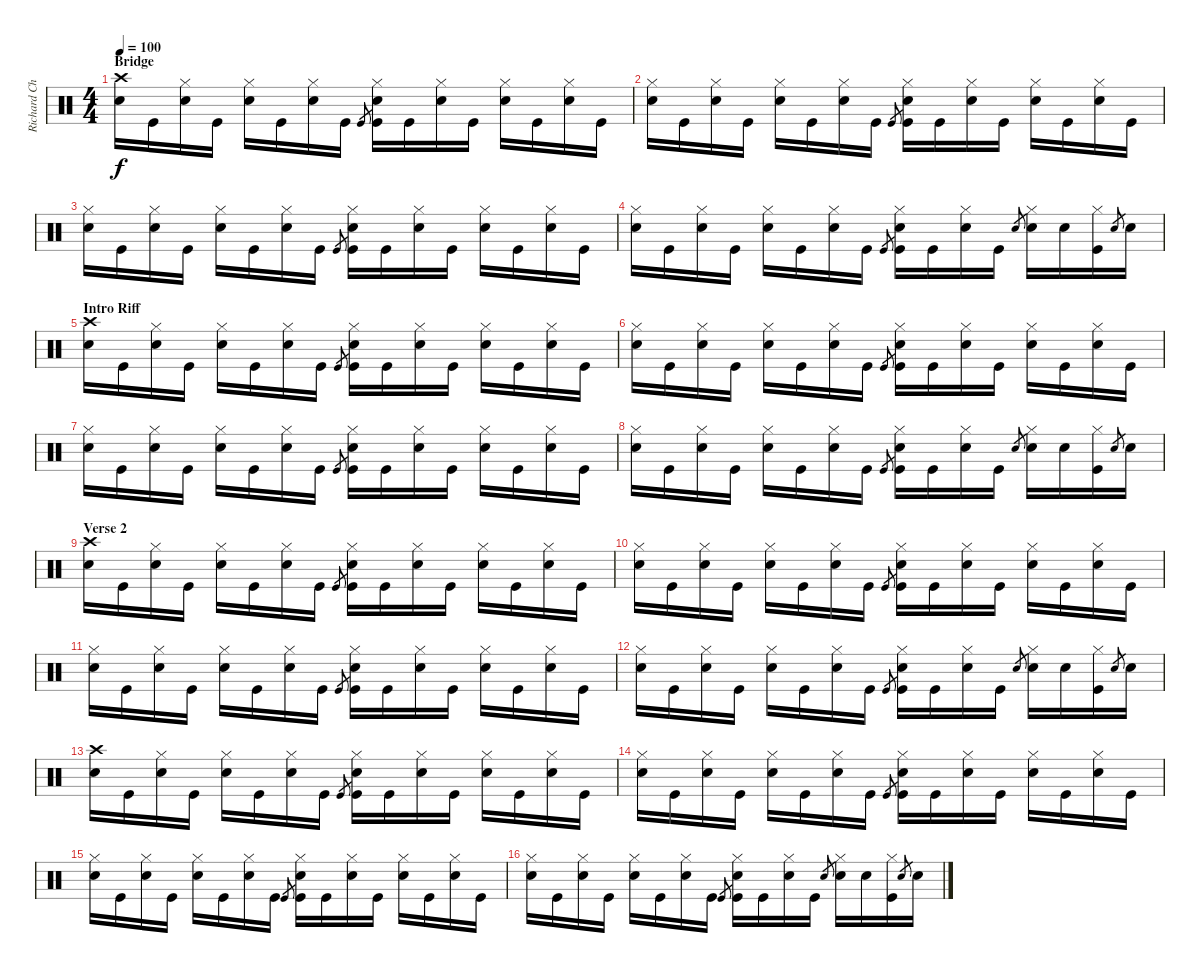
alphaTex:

\track ("Richard Chadwick - Drums" "Richard Ch") {instrument percussion}
\staff {score}
\articulation defaults
\ts (4 4)
\section ("" "Bridge")
\tempo 100
\clef neutral
\ks c
("Crash high (hit)" "Snare (hit) 2").16{dy f} "Kick (hit)".16 ("Hi-Hat (closed)" "Snare (hit) 2").16 "Kick (hit)".16 ("Hi-Hat (closed)" "Snare (hit) 2").16 "Kick (hit)".16 ("Hi-Hat (closed)" "Snare (hit) 2").16 "Kick (hit)".16 "Kick (hit)".8{gr} ("Hi-Hat (closed)" "Snare (hit) 2" "Kick (hit)").16 "Kick (hit)".16 ("Hi-Hat (closed)" "Snare (hit) 2").16 "Kick (hit)".16 ("Hi-Hat (closed)" "Snare (hit) 2").16 "Kick (hit)".16 ("Hi-Hat (closed)" "Snare (hit) 2").16 "Kick (hit)".16 |
("Hi-Hat (closed)" "Snare (hit) 2").16 "Kick (hit)".16 ("Hi-Hat (closed)" "Snare (hit) 2").16 "Kick (hit)".16 ("Hi-Hat (closed)" "Snare (hit) 2").16 "Kick (hit)".16 ("Hi-Hat (closed)" "Snare (hit) 2").16 "Kick (hit)".16 "Kick (hit)".8{gr} ("Hi-Hat (closed)" "Snare (hit) 2" "Kick (hit)").16 "Kick (hit)".16 ("Hi-Hat (closed)" "Snare (hit) 2").16 "Kick (hit)".16 ("Hi-Hat (closed)" "Snare (hit) 2").16 "Kick (hit)".16 ("Hi-Hat (closed)" "Snare (hit) 2").16 "Kick (hit)".16 |
("Hi-Hat (closed)" "Snare (hit) 2").16 "Kick (hit)".16 ("Hi-Hat (closed)" "Snare (hit) 2").16 "Kick (hit)".16 ("Hi-Hat (closed)" "Snare (hit) 2").16 "Kick (hit)".16 ("Hi-Hat (closed)" "Snare (hit) 2").16 "Kick (hit)".16 "Kick (hit)".8{gr} ("Hi-Hat (closed)" "Snare (hit) 2" "Kick (hit)").16 "Kick (hit)".16 ("Hi-Hat (closed)" "Snare (hit) 2").16 "Kick (hit)".16 ("Hi-Hat (closed)" "Snare (hit) 2").16 "Kick (hit)".16 ("Hi-Hat (closed)" "Snare (hit) 2").16 "Kick (hit)".16 |
("Hi-Hat (closed)" "Snare (hit) 2").16 "Kick (hit)".16 ("Hi-Hat (closed)" "Snare (hit) 2").16 "Kick (hit)".16 ("Hi-Hat (closed)" "Snare (hit) 2").16 "Kick (hit)".16 ("Hi-Hat (closed)" "Snare (hit) 2").16 "Kick (hit)".16 "Kick (hit)".8{gr} ("Hi-Hat (closed)" "Snare (hit) 2" "Kick (hit)").16 "Kick (hit)".16 ("Hi-Hat (closed)" "Snare (hit) 2").16 "Kick (hit)".16 "Snare (hit) 2".8{gr} ("Hi-Hat (closed)" "Snare (hit) 2").16 "Snare (hit) 2".16 ("Hi-Hat (closed)" "Kick (hit)").16 "Snare (hit) 2".8{gr} "Snare (hit) 2".16 |
\section ("" "Intro Riff")
("Crash high (hit)" "Snare (hit) 2").16 "Kick (hit)".16 ("Hi-Hat (closed)" "Snare (hit) 2").16 "Kick (hit)".16 ("Hi-Hat (closed)" "Snare (hit) 2").16 "Kick (hit)".16 ("Hi-Hat (closed)" "Snare (hit) 2").16 "Kick (hit)".16 "Kick (hit)".8{gr} ("Hi-Hat (closed)" "Snare (hit) 2" "Kick (hit)").16 "Kick (hit)".16 ("Hi-Hat (closed)" "Snare (hit) 2").16 "Kick (hit)".16 ("Hi-Hat (closed)" "Snare (hit) 2").16 "Kick (hit)".16 ("Hi-Hat (closed)" "Snare (hit) 2").16 "Kick (hit)".16 |
("Hi-Hat (closed)" "Snare (hit) 2").16 "Kick (hit)".16 ("Hi-Hat (closed)" "Snare (hit) 2").16 "Kick (hit)".16 ("Hi-Hat (closed)" "Snare (hit) 2").16 "Kick (hit)".16 ("Hi-Hat (closed)" "Snare (hit) 2").16 "Kick (hit)".16 "Kick (hit)".8{gr} ("Hi-Hat (closed)" "Snare (hit) 2" "Kick (hit)").16 "Kick (hit)".16 ("Hi-Hat (closed)" "Snare (hit) 2").16 "Kick (hit)".16 ("Hi-Hat (closed)" "Snare (hit) 2").16 "Kick (hit)".16 ("Hi-Hat (closed)" "Snare (hit) 2").16 "Kick (hit)".16 |
("Hi-Hat (closed)" "Snare (hit) 2").16 "Kick (hit)".16 ("Hi-Hat (closed)" "Snare (hit) 2").16 "Kick (hit)".16 ("Hi-Hat (closed)" "Snare (hit) 2").16 "Kick (hit)".16 ("Hi-Hat (closed)" "Snare (hit) 2").16 "Kick (hit)".16 "Kick (hit)".8{gr} ("Hi-Hat (closed)" "Snare (hit) 2" "Kick (hit)").16 "Kick (hit)".16 ("Hi-Hat (closed)" "Snare (hit) 2").16 "Kick (hit)".16 ("Hi-Hat (closed)" "Snare (hit) 2").16 "Kick (hit)".16 ("Hi-Hat (closed)" "Snare (hit) 2").16 "Kick (hit)".16 |
("Hi-Hat (closed)" "Snare (hit) 2").16 "Kick (hit)".16 ("Hi-Hat (closed)" "Snare (hit) 2").16 "Kick (hit)".16 ("Hi-Hat (closed)" "Snare (hit) 2").16 "Kick (hit)".16 ("Hi-Hat (closed)" "Snare (hit) 2").16 "Kick (hit)".16 "Kick (hit)".8{gr} ("Hi-Hat (closed)" "Snare (hit) 2" "Kick (hit)").16 "Kick (hit)".16 ("Hi-Hat (closed)" "Snare (hit) 2").16 "Kick (hit)".16 "Snare (hit) 2".8{gr} ("Hi-Hat (closed)" "Snare (hit) 2").16 "Snare (hit) 2".16 ("Hi-Hat (closed)" "Kick (hit)").16 "Snare (hit) 2".8{gr} "Snare (hit) 2".16 |
\section ("" "Verse 2")
("Crash high (hit)" "Snare (hit) 2").16 "Kick (hit)".16 ("Hi-Hat (closed)" "Snare (hit) 2").16 "Kick (hit)".16 ("Hi-Hat (closed)" "Snare (hit) 2").16 "Kick (hit)".16 ("Hi-Hat (closed)" "Snare (hit) 2").16 "Kick (hit)".16 "Kick (hit)".8{gr} ("Hi-Hat (closed)" "Snare (hit) 2" "Kick (hit)").16 "Kick (hit)".16 ("Hi-Hat (closed)" "Snare (hit) 2").16 "Kick (hit)".16 ("Hi-Hat (closed)" "Snare (hit) 2").16 "Kick (hit)".16 ("Hi-Hat (closed)" "Snare (hit) 2").16 "Kick (hit)".16 |
("Hi-Hat (closed)" "Snare (hit) 2").16 "Kick (hit)".16 ("Hi-Hat (closed)" "Snare (hit) 2").16 "Kick (hit)".16 ("Hi-Hat (closed)" "Snare (hit) 2").16 "Kick (hit)".16 ("Hi-Hat (closed)" "Snare (hit) 2").16 "Kick (hit)".16 "Kick (hit)".8{gr} ("Hi-Hat (closed)" "Snare (hit) 2" "Kick (hit)").16 "Kick (hit)".16 ("Hi-Hat (closed)" "Snare (hit) 2").16 "Kick (hit)".16 ("Hi-Hat (closed)" "Snare (hit) 2").16 "Kick (hit)".16 ("Hi-Hat (closed)" "Snare (hit) 2").16 "Kick (hit)".16 |
("Hi-Hat (closed)" "Snare (hit) 2").16 "Kick (hit)".16 ("Hi-Hat (closed)" "Snare (hit) 2").16 "Kick (hit)".16 ("Hi-Hat (closed)" "Snare (hit) 2").16 "Kick (hit)".16 ("Hi-Hat (closed)" "Snare (hit) 2").16 "Kick (hit)".16 "Kick (hit)".8{gr} ("Hi-Hat (closed)" "Snare (hit) 2" "Kick (hit)").16 "Kick (hit)".16 ("Hi-Hat (closed)" "Snare (hit) 2").16 "Kick (hit)".16 ("Hi-Hat (closed)" "Snare (hit) 2").16 "Kick (hit)".16 ("Hi-Hat (closed)" "Snare (hit) 2").16 "Kick (hit)".16 |
("Hi-Hat (closed)" "Snare (hit) 2").16 "Kick (hit)".16 ("Hi-Hat (closed)" "Snare (hit) 2").16 "Kick (hit)".16 ("Hi-Hat (closed)" "Snare (hit) 2").16 "Kick (hit)".16 ("Hi-Hat (closed)" "Snare (hit) 2").16 "Kick (hit)".16 "Kick (hit)".8{gr} ("Hi-Hat (closed)" "Snare (hit) 2" "Kick (hit)").16 "Kick (hit)".16 ("Hi-Hat (closed)" "Snare (hit) 2").16 "Kick (hit)".16 "Snare (hit) 2".8{gr} ("Hi-Hat (closed)" "Snare (hit) 2").16 "Snare (hit) 2".16 ("Hi-Hat (closed)" "Kick (hit)").16 "Snare (hit) 2".8{gr} "Snare (hit) 2".16 |
("Crash high (hit)" "Snare (hit) 2").16 "Kick (hit)".16 ("Hi-Hat (closed)" "Snare (hit) 2").16 "Kick (hit)".16 ("Hi-Hat (closed)" "Snare (hit) 2").16 "Kick (hit)".16 ("Hi-Hat (closed)" "Snare (hit) 2").16 "Kick (hit)".16 "Kick (hit)".8{gr} ("Hi-Hat (closed)" "Snare (hit) 2" "Kick (hit)").16 "Kick (hit)".16 ("Hi-Hat (closed)" "Snare (hit) 2").16 "Kick (hit)".16 ("Hi-Hat (closed)" "Snare (hit) 2").16 "Kick (hit)".16 ("Hi-Hat (closed)" "Snare (hit) 2").16 "Kick (hit)".16 |
("Hi-Hat (closed)" "Snare (hit) 2").16 "Kick (hit)".16 ("Hi-Hat (closed)" "Snare (hit) 2").16 "Kick (hit)".16 ("Hi-Hat (closed)" "Snare (hit) 2").16 "Kick (hit)".16 ("Hi-Hat (closed)" "Snare (hit) 2").16 "Kick (hit)".16 "Kick (hit)".8{gr} ("Hi-Hat (closed)" "Snare (hit) 2" "Kick (hit)").16 "Kick (hit)".16 ("Hi-Hat (closed)" "Snare (hit) 2").16 "Kick (hit)".16 ("Hi-Hat (closed)" "Snare (hit) 2").16 "Kick (hit)".16 ("Hi-Hat (closed)" "Snare (hit) 2").16 "Kick (hit)".16 |
("Hi-Hat (closed)" "Snare (hit) 2").16 "Kick (hit)".16 ("Hi-Hat (closed)" "Snare (hit) 2").16 "Kick (hit)".16 ("Hi-Hat (closed)" "Snare (hit) 2").16 "Kick (hit)".16 ("Hi-Hat (closed)" "Snare (hit) 2").16 "Kick (hit)".16 "Kick (hit)".8{gr} ("Hi-Hat (closed)" "Snare (hit) 2" "Kick (hit)").16 "Kick (hit)".16 ("Hi-Hat (closed)" "Snare (hit) 2").16 "Kick (hit)".16 ("Hi-Hat (closed)" "Snare (hit) 2").16 "Kick (hit)".16 ("Hi-Hat (closed)" "Snare (hit) 2").16 "Kick (hit)".16 |
("Hi-Hat (closed)" "Snare (hit) 2").16 "Kick (hit)".16 ("Hi-Hat (closed)" "Snare (hit) 2").16 "Kick (hit)".16 ("Hi-Hat (closed)" "Snare (hit) 2").16 "Kick (hit)".16 ("Hi-Hat (closed)" "Snare (hit) 2").16 "Kick (hit)".16 "Kick (hit)".8{gr} ("Hi-Hat (closed)" "Snare (hit) 2" "Kick (hit)").16 "Kick (hit)".16 ("Hi-Hat (closed)" "Snare (hit) 2").16 "Kick (hit)".16 "Snare (hit) 2".8{gr} ("Hi-Hat (closed)" "Snare (hit) 2").16 "Snare (hit) 2".16 ("Hi-Hat (closed)" "Kick (hit)").16 "Snare (hit) 2".8{gr} "Snare (hit) 2".16
